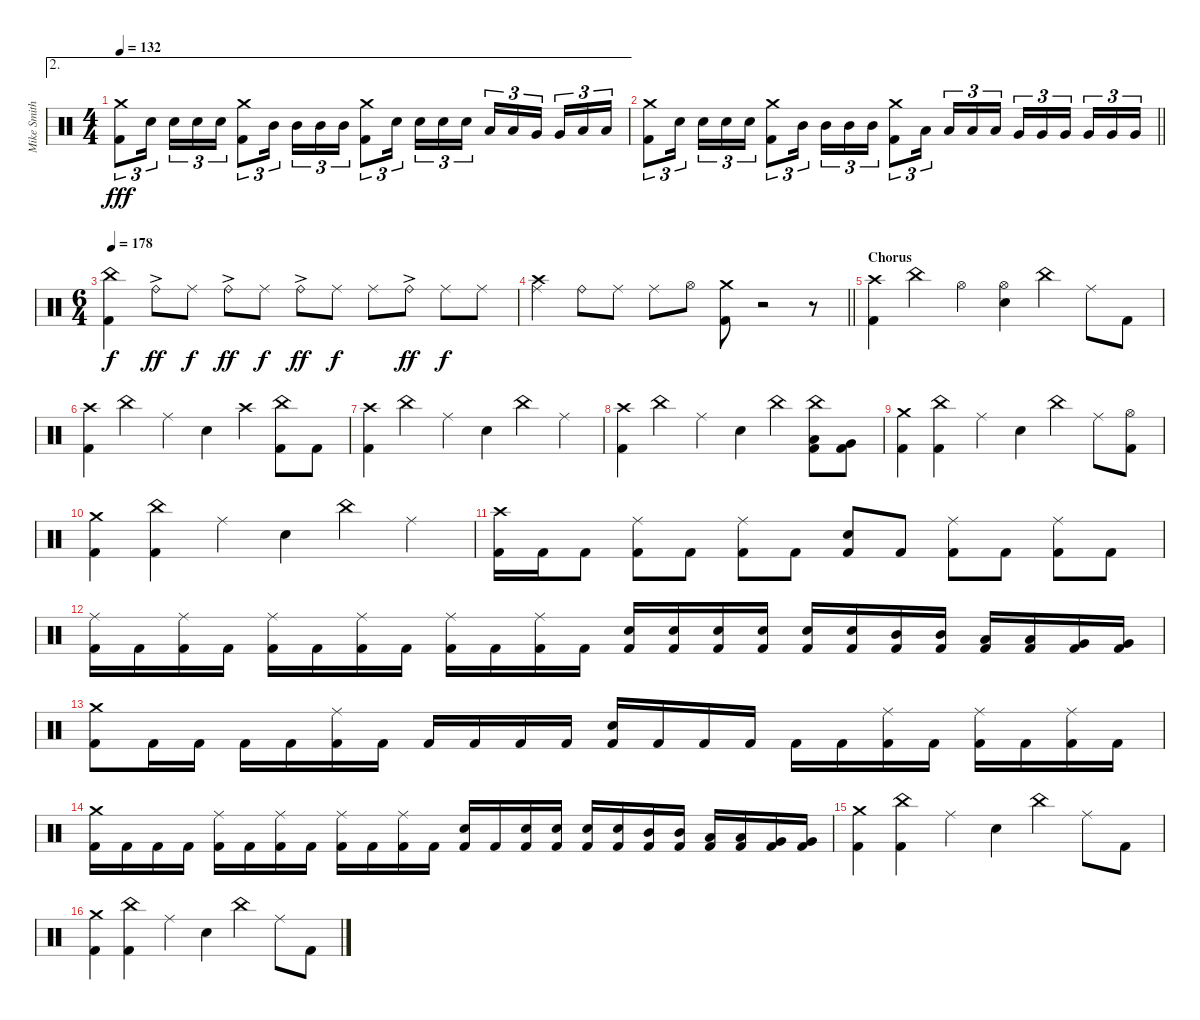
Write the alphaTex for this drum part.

\track ("Mike Smith" "Mike Smith") {instrument percussion}
\staff {score}
\articulation defaults
\ae 2
\ts (4 4)
\tempo 132
\clef neutral
\ks c
("Crash medium (hit)" "Kick (hit) 2").8{tu (3 2) dy fff} "Electric Snare (hit)".16{tu (3 2) beam splitsecondary} "Electric Snare (hit)".16{tu (3 2)} "Electric Snare (hit)".16{tu (3 2)} "Electric Snare (hit)".16{tu (3 2)} ("Crash medium (hit)" "Kick (hit) 2").8{tu (3 2)} "Mid Tom (hit)".16{tu (3 2) beam splitsecondary} "Mid Tom (hit)".16{tu (3 2)} "Mid Tom (hit)".16{tu (3 2)} "Mid Tom (hit)".16{tu (3 2)} ("Crash medium (hit)" "Kick (hit) 2").8{tu (3 2)} "Electric Snare (hit)".16{tu (3 2) beam splitsecondary} "Electric Snare (hit)".16{tu (3 2)} "Electric Snare (hit)".16{tu (3 2)} "Electric Snare (hit)".16{tu (3 2)} "Low Tom (hit)".16{tu (3 2)} "Low Tom (hit)".16{tu (3 2)} "Very Low Tom (hit)".16{tu (3 2) beam splitsecondary} "Very Low Tom (hit)".16{tu (3 2)} "Low Floor Tom (hit)".16{tu (3 2)} "Low Floor Tom (hit)".16{tu (3 2)} |
\barLineRight lightlight
("Crash medium (hit)" "Kick (hit) 2").8{tu (3 2)} "Electric Snare (hit)".16{tu (3 2) beam splitsecondary} "Electric Snare (hit)".16{tu (3 2)} "Electric Snare (hit)".16{tu (3 2)} "Electric Snare (hit)".16{tu (3 2)} ("Crash medium (hit)" "Kick (hit) 2").8{tu (3 2)} "Mid Tom (hit)".16{tu (3 2) beam splitsecondary} "Mid Tom (hit)".16{tu (3 2)} "Mid Tom (hit)".16{tu (3 2)} "Mid Tom (hit)".16{tu (3 2)} ("Crash medium (hit)" "Kick (hit) 2").8{tu (3 2)} "Low Tom (hit)".16{tu (3 2) beam splitsecondary} "Low Tom (hit)".16{tu (3 2)} "Low Tom (hit)".16{tu (3 2)} "Low Tom (hit)".16{tu (3 2)} "Very Low Tom (hit)".16{tu (3 2)} "Very Low Tom (hit)".16{tu (3 2)} "Very Low Tom (hit)".16{tu (3 2) beam splitsecondary} "Very Low Tom (hit)".16{tu (3 2)} "Very Low Tom (hit)".16{tu (3 2)} "Very Low Tom (hit)".16{tu (3 2)} |
\ts (6 4)
\tempo 178
("China (hit)" "Kick (hit) 2").4{dy f} "Ride (bell)"{ac}.8{dy ff} "Ride (middle)".8{dy f} "Ride (bell)"{ac}.8{dy ff} "Ride (middle)".8{dy f} "Ride (bell)"{ac}.8{dy ff} "Ride (middle)".8{dy f} "Ride (middle)".8 "Ride (bell)"{ac}.8{dy ff} "Ride (middle)".8{dy f} "Ride (middle)".8 |
\barLineRight lightlight
("Ride (middle)" "Crash high (hit)").4 "Ride (bell)".8 "Ride (middle)".8 "Ride (middle)".8 "Hi-Hat (open)".8 ("Crash medium (hit)" "Kick (hit) 2").8 r.2 r.8 |
\section ("" "Chorus")
("Crash high (hit)" "Kick (hit) 2").4 "China (hit)".4 "Hi-Hat (open)".4 ("Hi-Hat (open)" "Electric Snare (hit)").4 "China (hit)".4 "Ride (middle)".8 "Kick (hit) 2".8 |
("Crash high (hit)" "Kick (hit) 2").4 "China (hit)".4 "Ride (middle)".4 "Electric Snare (hit)".4 "Crash high (hit)".4 ("China (hit)" "Kick (hit) 2").8 "Kick (hit) 2".8 |
("Crash high (hit)" "Kick (hit) 2").4 "China (hit)".4 "Ride (middle)".4 "Electric Snare (hit)".4 "China (hit)".4 "Ride (middle)".4 |
("Crash high (hit)" "Kick (hit) 2").4 "China (hit)".4 "Ride (middle)".4 "Electric Snare (hit)".4 "China (hit)".4 ("China (hit)" "Low Tom (hit)" "Kick (hit) 2").8 ("Very Low Tom (hit)" "Kick (hit) 2").8 |
("Crash medium (hit)" "Kick (hit) 2").4 ("China (hit)" "Kick (hit) 2").4 "Ride (middle)".4 "Electric Snare (hit)".4 "China (hit)".4 "Ride (middle)".8 ("Hi-Hat (open)" "Kick (hit) 2").8 |
("Crash medium (hit)" "Kick (hit) 2").4 ("China (hit)" "Kick (hit) 2").4 "Ride (middle)".4 "Electric Snare (hit)".4 "China (hit)".4 "Ride (middle)".4 |
("Crash high (hit)" "Kick (hit) 2").16 "Kick (hit) 2".16 "Kick (hit) 2".8 ("Ride (middle)" "Kick (hit) 2").8 "Kick (hit) 2".8 ("Ride (middle)" "Kick (hit) 2").8 "Kick (hit) 2".8 ("Electric Snare (hit)" "Kick (hit) 2").8 "Kick (hit) 2".8 ("Ride (middle)" "Kick (hit) 2").8 "Kick (hit) 2".8 ("Ride (middle)" "Kick (hit) 2").8 "Kick (hit) 2".8 |
("Ride (middle)" "Kick (hit) 2").16 "Kick (hit) 2".16 ("Ride (middle)" "Kick (hit) 2").16 "Kick (hit) 2".16 ("Ride (middle)" "Kick (hit) 2").16 "Kick (hit) 2".16 ("Ride (middle)" "Kick (hit) 2").16 "Kick (hit) 2".16 ("Ride (middle)" "Kick (hit) 2").16 "Kick (hit) 2".16 ("Ride (middle)" "Kick (hit) 2").16 "Kick (hit) 2".16 ("Electric Snare (hit)" "Kick (hit) 2").16 ("Electric Snare (hit)" "Kick (hit) 2").16 ("Electric Snare (hit)" "Kick (hit) 2").16 ("Electric Snare (hit)" "Kick (hit) 2").16 ("Electric Snare (hit)" "Kick (hit) 2").16 ("Electric Snare (hit)" "Kick (hit) 2").16 ("Mid Tom (hit)" "Kick (hit) 2").16 ("Mid Tom (hit)" "Kick (hit) 2").16 ("Low Tom (hit)" "Kick (hit) 2").16 ("Low Tom (hit)" "Kick (hit) 2").16 ("Very Low Tom (hit)" "Kick (hit) 2").16 ("Very Low Tom (hit)" "Kick (hit) 2").16 |
("Crash medium (hit)" "Kick (hit) 2").8 "Kick (hit) 2".16 "Kick (hit) 2".16 "Kick (hit) 2".16 "Kick (hit) 2".16 ("Ride (middle)" "Kick (hit) 2").16 "Kick (hit) 2".16 "Kick (hit) 2".16 "Kick (hit) 2".16 "Kick (hit) 2".16 "Kick (hit) 2".16 ("Electric Snare (hit)" "Kick (hit) 2").16 "Kick (hit) 2".16 "Kick (hit) 2".16 "Kick (hit) 2".16 "Kick (hit) 2".16 "Kick (hit) 2".16 ("Ride (middle)" "Kick (hit) 2").16 "Kick (hit) 2".16 ("Ride (middle)" "Kick (hit) 2").16 "Kick (hit) 2".16 ("Ride (middle)" "Kick (hit) 2").16 "Kick (hit) 2".16 |
("Crash medium (hit)" "Kick (hit) 2").16 "Kick (hit) 2".16 "Kick (hit) 2".16 "Kick (hit) 2".16 ("Ride (middle)" "Kick (hit) 2").16 "Kick (hit) 2".16 ("Ride (middle)" "Kick (hit) 2").16 "Kick (hit) 2".16 ("Ride (middle)" "Kick (hit) 2").16 "Kick (hit) 2".16 ("Ride (middle)" "Kick (hit) 2").16 "Kick (hit) 2".16 ("Electric Snare (hit)" "Kick (hit) 2").16 "Kick (hit) 2".16 ("Electric Snare (hit)" "Kick (hit) 2").16 ("Electric Snare (hit)" "Kick (hit) 2").16 ("Electric Snare (hit)" "Kick (hit) 2").16 ("Electric Snare (hit)" "Kick (hit) 2").16 ("Mid Tom (hit)" "Kick (hit) 2").16 ("Mid Tom (hit)" "Kick (hit) 2").16 ("Low Tom (hit)" "Kick (hit) 2").16 ("Low Tom (hit)" "Kick (hit) 2").16 ("Very Low Tom (hit)" "Kick (hit) 2").16 ("Very Low Tom (hit)" "Kick (hit) 2").16 |
("Crash medium (hit)" "Kick (hit) 2").4 ("China (hit)" "Kick (hit) 2").4 "Ride (middle)".4 "Electric Snare (hit)".4 "China (hit)".4 "Ride (middle)".8 "Kick (hit) 2".8 |
("Crash medium (hit)" "Kick (hit) 2").4 ("China (hit)" "Kick (hit) 2").4 "Ride (middle)".4 "Electric Snare (hit)".4 "China (hit)".4 "Ride (middle)".8 "Kick (hit) 2".8
